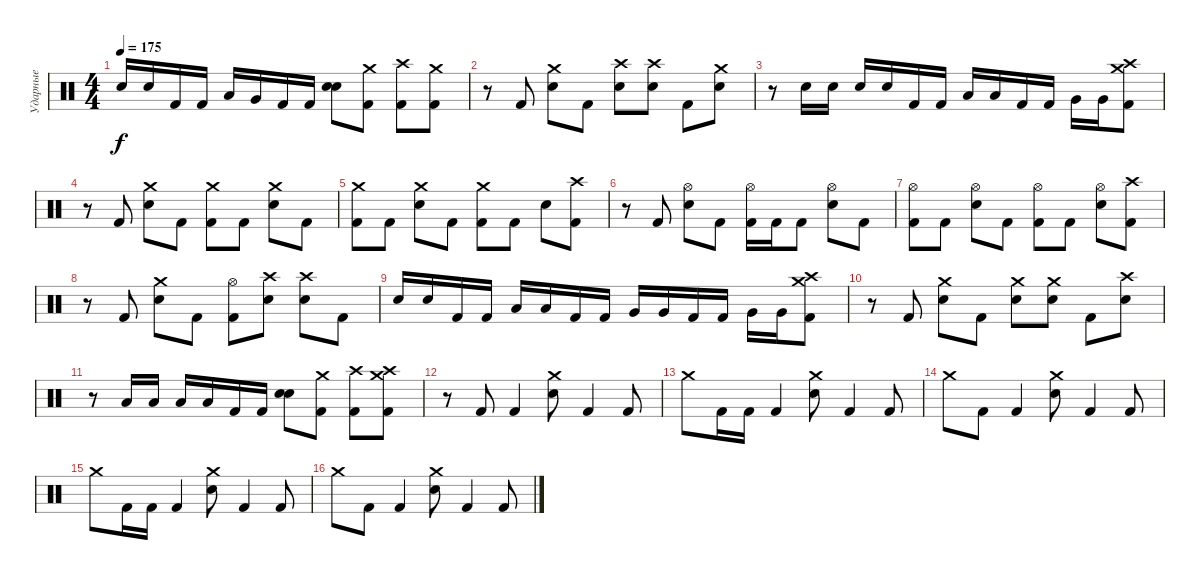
\track ("Ударные" "Ударные") {instrument percussion}
\staff {score}
\articulation defaults
\ts (4 4)
\tempo 175
\clef neutral
\ks c "Electric Snare (hit)".16{dy f} "Electric Snare (hit)".16 "Kick (hit) 2".16 "Kick (hit) 2".16 "Low Tom (hit)".16 "Very Low Tom (hit)".16 "Kick (hit) 2".16 "Kick (hit) 2".16
("Electric Snare (hit)" "Electric Snare (hit)").8{bd 60} ("Crash medium (hit)" "Kick (hit) 2").8 ("Crash high (hit)" "Kick (hit) 2").8 ("Crash medium (hit)" "Kick (hit) 2").8 |
r.8 "Kick (hit) 2".8 ("Crash medium (hit)" "Electric Snare (hit)").8 "Kick (hit) 2".8 ("Crash high (hit)" "Electric Snare (hit)").8 ("Crash high (hit)" "Electric Snare (hit)").8 "Kick (hit) 2".8 ("Crash medium (hit)" "Electric Snare (hit)").8 |
r.8 "Electric Snare (hit)".16 "Electric Snare (hit)".16 "Electric Snare (hit)".16 "Electric Snare (hit)".16 "Kick (hit) 2".16 "Kick (hit) 2".16 "Low Tom (hit)".16 "Low Tom (hit)".16 "Kick (hit) 2".16 "Kick (hit) 2".16 "Very Low Tom (hit)".16 "Very Low Tom (hit)".16 ("Crash high (hit)" "Crash medium (hit)" "Kick (hit) 2").8 |
r.8 "Kick (hit) 2".8 ("Crash medium (hit)" "Electric Snare (hit)").8 "Kick (hit) 2".8 ("Crash medium (hit)" "Kick (hit) 2").8 "Kick (hit) 2".8 ("Crash medium (hit)" "Electric Snare (hit)").8 "Kick (hit) 2".8 |
("Crash medium (hit)" "Kick (hit) 2").8 "Kick (hit) 2".8 ("Crash medium (hit)" "Electric Snare (hit)").8 "Kick (hit) 2".8 ("Crash medium (hit)" "Kick (hit) 2").8 "Kick (hit) 2".8 "Electric Snare (hit)".8 ("Crash high (hit)" "Kick (hit) 2").8 |
r.8 "Kick (hit) 2".8 ("Hi-Hat (open)" "Electric Snare (hit)").8 "Kick (hit) 2".8 ("Hi-Hat (open)" "Kick (hit) 2").16 "Kick (hit) 2".16 "Kick (hit) 2".8 ("Hi-Hat (open)" "Electric Snare (hit)").8 "Kick (hit) 2".8 |
("Hi-Hat (open)" "Kick (hit) 2").8 "Kick (hit) 2".8 ("Hi-Hat (open)" "Electric Snare (hit)").8 "Kick (hit) 2".8 ("Hi-Hat (open)" "Kick (hit) 2").8 "Kick (hit) 2".8 ("Hi-Hat (open)" "Electric Snare (hit)").8 ("Crash high (hit)" "Kick (hit) 2").8 |
r.8 "Kick (hit) 2".8 ("Crash medium (hit)" "Electric Snare (hit)").8 "Kick (hit) 2".8 ("Hi-Hat (open)" "Kick (hit) 2").8 ("Crash high (hit)" "Electric Snare (hit)").8 ("Crash high (hit)" "Electric Snare (hit)").8 "Kick (hit) 2".8 |
"Electric Snare (hit)".16 "Electric Snare (hit)".16 "Kick (hit) 2".16 "Kick (hit) 2".16 "Low Tom (hit)".16 "Low Tom (hit)".16 "Kick (hit) 2".16 "Kick (hit) 2".16 "Very Low Tom (hit)".16 "Very Low Tom (hit)".16 "Kick (hit) 2".16 "Kick (hit) 2".16 "Very Low Tom (hit)".16 "Very Low Tom (hit)".16 ("Crash high (hit)" "Crash medium (hit)" "Kick (hit) 2").8 |
r.8 "Kick (hit) 2".8 ("Crash medium (hit)" "Electric Snare (hit)").8 "Kick (hit) 2".8 ("Crash medium (hit)" "Electric Snare (hit)").8 ("Crash medium (hit)" "Electric Snare (hit)").8 "Kick (hit) 2".8 ("Crash high (hit)" "Electric Snare (hit)").8 |
r.8 "Low Tom (hit)".16 "Low Tom (hit)".16 "Low Tom (hit)".16 "Low Tom (hit)".16 "Kick (hit) 2".16 "Kick (hit) 2".16 ("Electric Snare (hit)" "Electric Snare (hit)").8{bd 240} ("Crash medium (hit)" "Kick (hit) 2").8 ("Crash high (hit)" "Kick (hit) 2").8 ("Crash high (hit)" "Crash medium (hit)" "Kick (hit) 2").8 |
r.8 "Kick (hit) 2".8 "Kick (hit) 2".4 ("Crash medium (hit)" "Electric Snare (hit)").8 "Kick (hit) 2".4 "Kick (hit) 2".8 |
"Crash medium (hit)".8 "Kick (hit) 2".16 "Kick (hit) 2".16 "Kick (hit) 2".4 ("Crash medium (hit)" "Electric Snare (hit)").8 "Kick (hit) 2".4 "Kick (hit) 2".8 |
"Crash medium (hit)".8 "Kick (hit) 2".8 "Kick (hit) 2".4 ("Crash medium (hit)" "Electric Snare (hit)").8 "Kick (hit) 2".4 "Kick (hit) 2".8 |
"Crash medium (hit)".8 "Kick (hit) 2".16 "Kick (hit) 2".16 "Kick (hit) 2".4 ("Crash medium (hit)" "Electric Snare (hit)").8 "Kick (hit) 2".4 "Kick (hit) 2".8 |
"Crash medium (hit)".8 "Kick (hit) 2".8 "Kick (hit) 2".4 ("Crash medium (hit)" "Electric Snare (hit)").8 "Kick (hit) 2".4 "Kick (hit) 2".8
